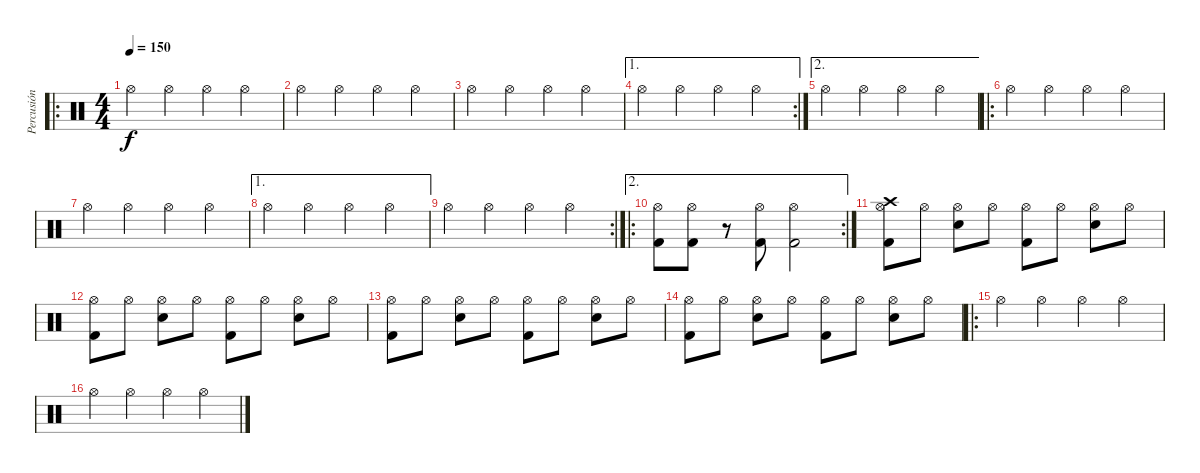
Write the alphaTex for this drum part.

\track ("Percusión (Raymundo Fajardo)" "Percusión ") {instrument percussion}
\staff {score}
\articulation defaults
\ro
\ts (4 4)
\tempo 150
\clef neutral
\ks c "Hi-Hat (open)".4{dy f} "Hi-Hat (open)".4 "Hi-Hat (open)".4 "Hi-Hat (open)".4
|
"Hi-Hat (open)".4 "Hi-Hat (open)".4 "Hi-Hat (open)".4 "Hi-Hat (open)".4 |
"Hi-Hat (open)".4 "Hi-Hat (open)".4 "Hi-Hat (open)".4 "Hi-Hat (open)".4 |
\ae 1
\rc 2 "Hi-Hat (open)".4 "Hi-Hat (open)".4 "Hi-Hat (open)".4 "Hi-Hat (open)".4
|
\ae 2 "Hi-Hat (open)".4 "Hi-Hat (open)".4 "Hi-Hat (open)".4 "Hi-Hat (open)".4
|
\ro "Hi-Hat (open)".4 "Hi-Hat (open)".4 "Hi-Hat (open)".4 "Hi-Hat (open)".4
|
"Hi-Hat (open)".4 "Hi-Hat (open)".4 "Hi-Hat (open)".4 "Hi-Hat (open)".4 |
\ae 1 "Hi-Hat (open)".4 "Hi-Hat (open)".4 "Hi-Hat (open)".4 "Hi-Hat (open)".4
|
\rc 2 "Hi-Hat (open)".4 "Hi-Hat (open)".4 "Hi-Hat (open)".4 "Hi-Hat (open)".4
|
\ae 2
\ro
\rc 2
("Kick (hit) 2" "Hi-Hat (open)").8 ("Kick (hit) 2" "Hi-Hat (open)").8 r.8 ("Kick (hit) 2" "Hi-Hat (open)").8 ("Kick (hit) 2" "Hi-Hat (open)").2 |
("Hi-Hat (open)" "Crash high (hit)" "Kick (hit) 2").8 "Hi-Hat (open)".8 ("Hi-Hat (open)" "Snare (hit) 2").8 "Hi-Hat (open)".8 ("Hi-Hat (open)" "Kick (hit) 2").8 "Hi-Hat (open)".8 ("Hi-Hat (open)" "Snare (hit) 2").8 "Hi-Hat (open)".8 |
("Hi-Hat (open)" "Kick (hit) 2").8 "Hi-Hat (open)".8 ("Hi-Hat (open)" "Snare (hit) 2").8 "Hi-Hat (open)".8 ("Hi-Hat (open)" "Kick (hit) 2").8 "Hi-Hat (open)".8 ("Hi-Hat (open)" "Snare (hit) 2").8 "Hi-Hat (open)".8 |
("Hi-Hat (open)" "Kick (hit) 2").8 "Hi-Hat (open)".8 ("Hi-Hat (open)" "Snare (hit) 2").8 "Hi-Hat (open)".8 ("Hi-Hat (open)" "Kick (hit) 2").8 "Hi-Hat (open)".8 ("Hi-Hat (open)" "Snare (hit) 2").8 "Hi-Hat (open)".8 |
("Hi-Hat (open)" "Kick (hit) 2").8 "Hi-Hat (open)".8 ("Hi-Hat (open)" "Snare (hit) 2").8 "Hi-Hat (open)".8 ("Hi-Hat (open)" "Kick (hit) 2").8 "Hi-Hat (open)".8 ("Hi-Hat (open)" "Snare (hit) 2").8 "Hi-Hat (open)".8 |
\ro "Hi-Hat (open)".4 "Hi-Hat (open)".4 "Hi-Hat (open)".4 "Hi-Hat (open)".4
|
"Hi-Hat (open)".4 "Hi-Hat (open)".4 "Hi-Hat (open)".4 "Hi-Hat (open)".4
